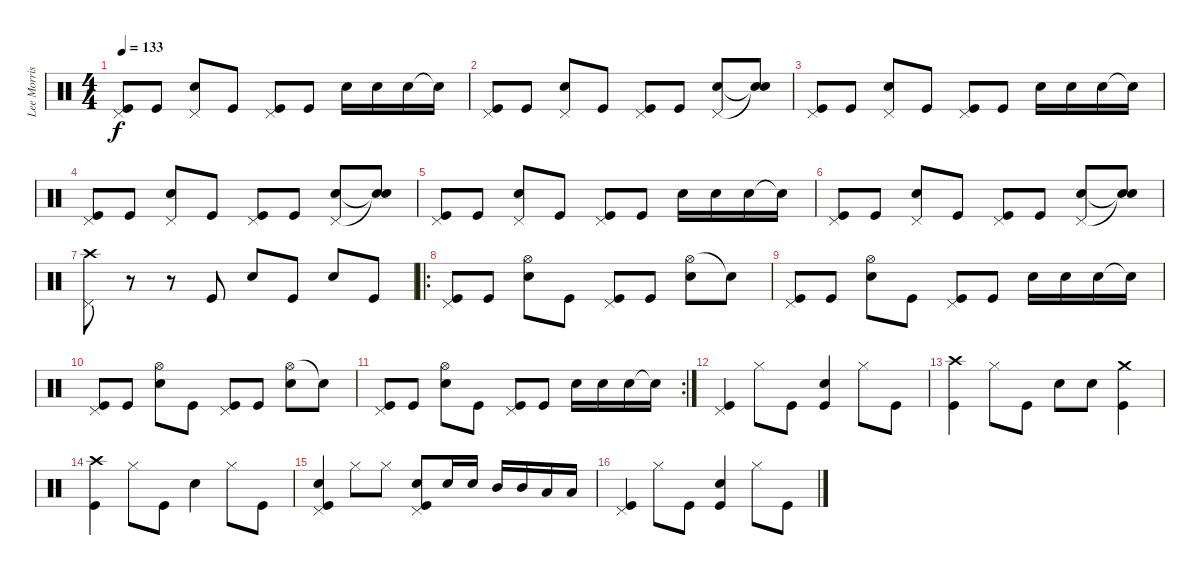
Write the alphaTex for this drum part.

\track ("Lee Morris" "Lee Morris") {instrument percussion}
\staff {score}
\articulation defaults
\ts (4 4)
\tempo 133
\clef neutral
\ks c
("Pedal Hi-Hat (hit)" "Kick (hit)").8{dy f} "Kick (hit)".8 ("Electric Snare (hit)" "Pedal Hi-Hat (hit)").8 "Kick (hit)".8 ("Pedal Hi-Hat (hit)" "Kick (hit)").8 "Kick (hit)".8 "Electric Snare (hit)".16 "Electric Snare (hit)".16 "Electric Snare (hit)".16 "Snare (hit)"{t}.16 |
("Pedal Hi-Hat (hit)" "Kick (hit)").8 "Kick (hit)".8 ("Electric Snare (hit)" "Pedal Hi-Hat (hit)").8 "Kick (hit)".8 ("Pedal Hi-Hat (hit)" "Kick (hit)").8 "Kick (hit)".8 ("Electric Snare (hit)" "Pedal Hi-Hat (hit)").8 ("Snare (hit)"{t} "Snare (hit)"{t}).8 |
("Pedal Hi-Hat (hit)" "Kick (hit)").8 "Kick (hit)".8 ("Electric Snare (hit)" "Pedal Hi-Hat (hit)").8 "Kick (hit)".8 ("Pedal Hi-Hat (hit)" "Kick (hit)").8 "Kick (hit)".8 "Electric Snare (hit)".16 "Electric Snare (hit)".16 "Electric Snare (hit)".16 "Snare (hit)"{t}.16 |
("Pedal Hi-Hat (hit)" "Kick (hit)").8 "Kick (hit)".8 ("Electric Snare (hit)" "Pedal Hi-Hat (hit)").8 "Kick (hit)".8 ("Pedal Hi-Hat (hit)" "Kick (hit)").8 "Kick (hit)".8 ("Electric Snare (hit)" "Pedal Hi-Hat (hit)").8 ("Snare (hit)"{t} "Snare (hit)"{t}).8 |
("Pedal Hi-Hat (hit)" "Kick (hit)").8 "Kick (hit)".8 ("Electric Snare (hit)" "Pedal Hi-Hat (hit)").8 "Kick (hit)".8 ("Pedal Hi-Hat (hit)" "Kick (hit)").8 "Kick (hit)".8 "Electric Snare (hit)".16 "Electric Snare (hit)".16 "Electric Snare (hit)".16 "Snare (hit)"{t}.16 |
("Pedal Hi-Hat (hit)" "Kick (hit)").8 "Kick (hit)".8 ("Electric Snare (hit)" "Pedal Hi-Hat (hit)").8 "Kick (hit)".8 ("Pedal Hi-Hat (hit)" "Kick (hit)").8 "Kick (hit)".8 ("Electric Snare (hit)" "Pedal Hi-Hat (hit)").8 ("Snare (hit)"{t} "Snare (hit)"{t}).8 |
("Pedal Hi-Hat (hit)" "Crash high (hit)").8 r.8 r.8 "Kick (hit)".8 "Electric Snare (hit)".8 "Kick (hit)".8 "Electric Snare (hit)".8 "Kick (hit)".8 |
\ro
("Pedal Hi-Hat (hit)" "Kick (hit)").8 "Kick (hit)".8 ("Hi-Hat (open)" "Electric Snare (hit)").8 "Kick (hit)".8 ("Pedal Hi-Hat (hit)" "Kick (hit)").8 "Kick (hit)".8 ("Hi-Hat (open)" "Electric Snare (hit)").8 "Snare (hit)"{t}.8 |
("Pedal Hi-Hat (hit)" "Kick (hit)").8 "Kick (hit)".8 ("Hi-Hat (open)" "Electric Snare (hit)").8 "Kick (hit)".8 ("Pedal Hi-Hat (hit)" "Kick (hit)").8 "Kick (hit)".8 "Electric Snare (hit)".16 "Electric Snare (hit)".16 "Electric Snare (hit)".16 "Snare (hit)"{t}.16 |
("Pedal Hi-Hat (hit)" "Kick (hit)").8 "Kick (hit)".8 ("Hi-Hat (open)" "Electric Snare (hit)").8 "Kick (hit)".8 ("Pedal Hi-Hat (hit)" "Kick (hit)").8 "Kick (hit)".8 ("Hi-Hat (open)" "Electric Snare (hit)").8 "Snare (hit)"{t}.8 |
\rc 2
("Pedal Hi-Hat (hit)" "Kick (hit)").8 "Kick (hit)".8 ("Hi-Hat (open)" "Electric Snare (hit)").8 "Kick (hit)".8 ("Pedal Hi-Hat (hit)" "Kick (hit)").8 "Kick (hit)".8 "Electric Snare (hit)".16 "Electric Snare (hit)".16 "Electric Snare (hit)".16 "Snare (hit)"{t}.16 |
("Pedal Hi-Hat (hit)" "Kick (hit)").4 "Hi-Hat (closed)".8 "Kick (hit)".8 ("Electric Snare (hit)" "Kick (hit)").4 "Hi-Hat (closed)".8 "Kick (hit)".8 |
("Crash high (hit)" "Kick (hit)").4 "Hi-Hat (closed)".8 "Kick (hit)".8 "Electric Snare (hit)".8 "Electric Snare (hit)".8 ("Crash medium (hit)" "Kick (hit)").4 |
("Crash high (hit)" "Kick (hit)").4 "Hi-Hat (closed)".8 "Kick (hit)".8 "Electric Snare (hit)".4 "Hi-Hat (closed)".8 "Kick (hit)".8 |
("Pedal Hi-Hat (hit)" "Electric Snare (hit)" "Kick (hit)").4 "Hi-Hat (closed)".8 "Hi-Hat (closed)".8 ("Pedal Hi-Hat (hit)" "Electric Snare (hit)" "Kick (hit)").8 "Electric Snare (hit)".16 "Electric Snare (hit)".16 "Mid Tom (hit)".16 "Mid Tom (hit)".16 "Low Tom (hit)".16 "Low Tom (hit)".16 |
("Pedal Hi-Hat (hit)" "Kick (hit)").4 "Hi-Hat (closed)".8 "Kick (hit)".8 ("Electric Snare (hit)" "Kick (hit)").4 "Hi-Hat (closed)".8 "Kick (hit)".8
